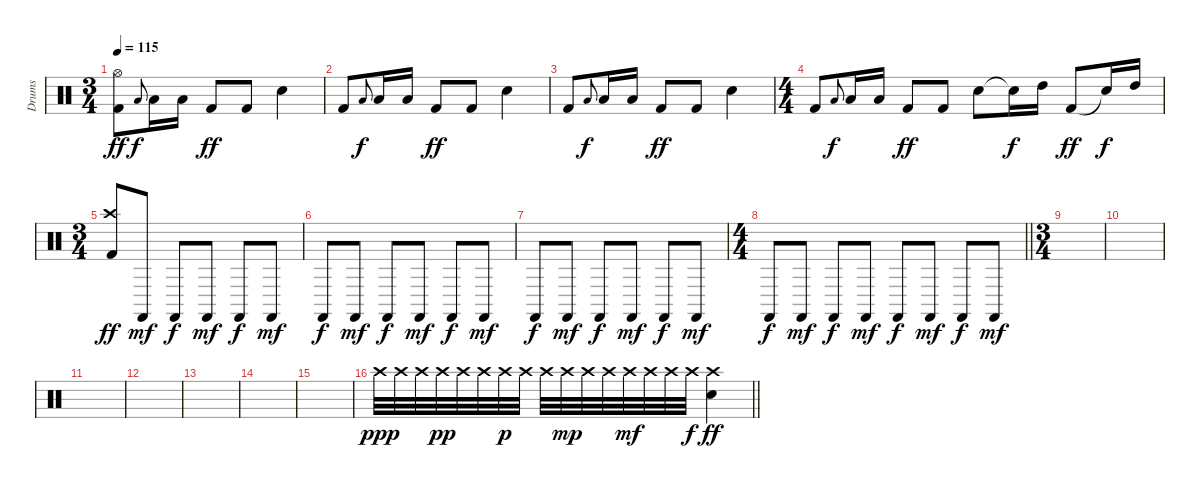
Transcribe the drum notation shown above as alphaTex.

\track ("Drums" "Drums") {instrument percussion}
\staff {score}
\articulation defaults
\ts (3 4)
\tempo 115
\clef neutral
\ks c
("Hi-Hat (open)" "Kick (hit) 2").8{dy ff} "Low Tom (hit)".8{gr onbeat dy f} "Low Tom (hit)".16 "Low Tom (hit)".16 "Kick (hit) 2".8{dy ff} "Kick (hit) 2".8 "Snare (hit) 2".4 |
"Kick (hit) 2".8 "Low Tom (hit)".8{gr onbeat dy f} "Low Tom (hit)".16 "Low Tom (hit)".16 "Kick (hit) 2".8{dy ff} "Kick (hit) 2".8 "Snare (hit) 2".4 |
"Kick (hit) 2".8 "Low Tom (hit)".8{gr onbeat dy f} "Low Tom (hit)".16 "Low Tom (hit)".16 "Kick (hit) 2".8{dy ff} "Kick (hit) 2".8 "Snare (hit) 2".4 |
\ts (4 4)
"Kick (hit) 2".8 "Low Tom (hit)".8{gr onbeat dy f} "Low Tom (hit)".16 "Low Tom (hit)".16 "Kick (hit) 2".8{dy ff} "Kick (hit) 2".8 "Snare (hit) 2".8 "Snare (hit)"{t}.16{dy f} "High Tom (hit)".16 "Kick (hit) 2".8{dy ff} "Snare (hit)"{t}.16{dy f} "High Tom (hit)".16 |
\ts (3 4)
("Crash high (hit)" "Kick (hit) 2").8{dy ff} "Castanets (hit)".8{dy mf} "Castanets (hit)".8{dy f} "Castanets (hit)".8{dy mf} "Castanets (hit)".8{dy f} "Castanets (hit)".8{dy mf} |
"Castanets (hit)".8{dy f} "Castanets (hit)".8{dy mf} "Castanets (hit)".8{dy f} "Castanets (hit)".8{dy mf} "Castanets (hit)".8{dy f} "Castanets (hit)".8{dy mf} |
"Castanets (hit)".8{dy f} "Castanets (hit)".8{dy mf} "Castanets (hit)".8{dy f} "Castanets (hit)".8{dy mf} "Castanets (hit)".8{dy f} "Castanets (hit)".8{dy mf} |
\ts (4 4)
\barLineRight lightlight "Castanets (hit)".8{dy f} "Castanets (hit)".8{dy mf} "Castanets (hit)".8{dy f} "Castanets (hit)".8{dy mf} "Castanets (hit)".8{dy f} "Castanets (hit)".8{dy mf} "Castanets (hit)".8{dy f} "Castanets (hit)".8{dy mf}
|
\ts (3 4)
\section ("" "")
|
|
|
|
|
|
|
\barLineRight lightlight "Crash high (hit)".32{dy ppp} "Crash high (hit)".32 "Crash high (hit)".32 "Crash high (hit)".32{dy pp} "Crash high (hit)".32 "Crash high (hit)".32 "Crash high (hit)".32{dy p} "Crash high (hit)".32 "Crash high (hit)".32 "Crash high (hit)".32{dy mp} "Crash high (hit)".32 "Crash high (hit)".32 "Crash high (hit)".32{dy mf} "Crash high (hit)".32 "Crash high (hit)".32 "Crash high (hit)".32{dy f}
("Crash high (hit)" "Snare (hit) 2").4{dy ff}
